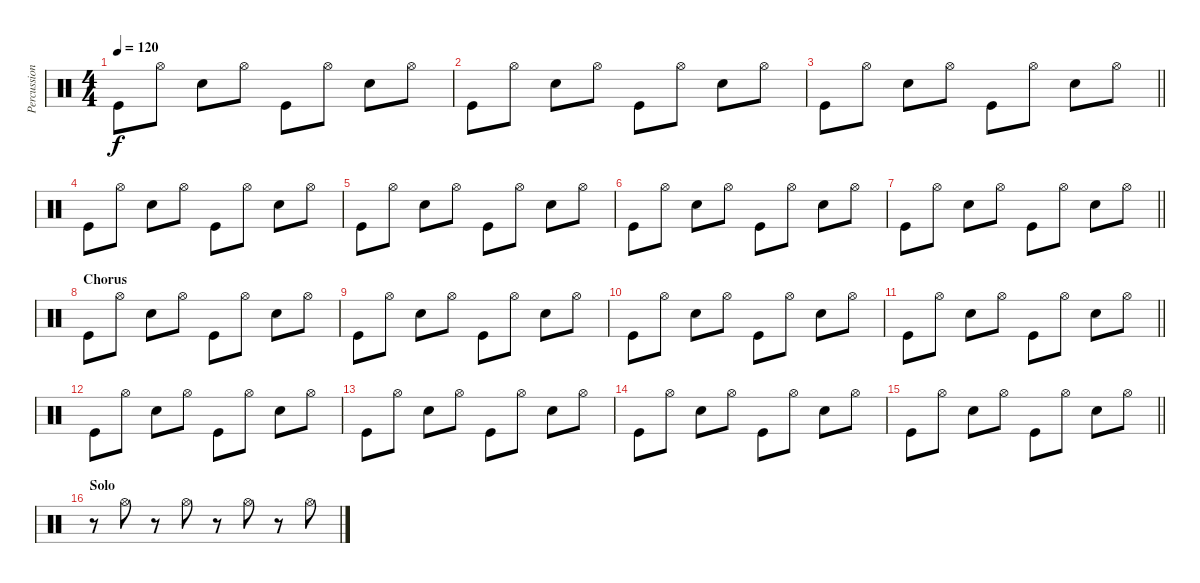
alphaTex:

\track ("Percussion" "Percussion") {instrument percussion}
\staff {score}
\articulation defaults
\ts (4 4)
\tempo 120
\clef neutral
\ks c "Kick (hit)".8{dy f} "Hi-Hat (open)".8 "Snare (hit) 2".8 "Hi-Hat (open)".8 "Kick (hit)".8 "Hi-Hat (open)".8 "Snare (hit) 2".8 "Hi-Hat (open)".8
|
"Kick (hit)".8 "Hi-Hat (open)".8 "Snare (hit) 2".8 "Hi-Hat (open)".8 "Kick (hit)".8 "Hi-Hat (open)".8 "Snare (hit) 2".8 "Hi-Hat (open)".8 |
\barLineRight lightlight "Kick (hit)".8 "Hi-Hat (open)".8 "Snare (hit) 2".8 "Hi-Hat (open)".8 "Kick (hit)".8 "Hi-Hat (open)".8 "Snare (hit) 2".8 "Hi-Hat (open)".8
|
"Kick (hit)".8 "Hi-Hat (open)".8 "Snare (hit) 2".8 "Hi-Hat (open)".8 "Kick (hit)".8 "Hi-Hat (open)".8 "Snare (hit) 2".8 "Hi-Hat (open)".8 |
"Kick (hit)".8 "Hi-Hat (open)".8 "Snare (hit) 2".8 "Hi-Hat (open)".8 "Kick (hit)".8 "Hi-Hat (open)".8 "Snare (hit) 2".8 "Hi-Hat (open)".8 |
"Kick (hit)".8 "Hi-Hat (open)".8 "Snare (hit) 2".8 "Hi-Hat (open)".8 "Kick (hit)".8 "Hi-Hat (open)".8 "Snare (hit) 2".8 "Hi-Hat (open)".8 |
\barLineRight lightlight "Kick (hit)".8 "Hi-Hat (open)".8 "Snare (hit) 2".8 "Hi-Hat (open)".8 "Kick (hit)".8 "Hi-Hat (open)".8 "Snare (hit) 2".8 "Hi-Hat (open)".8
|
\section ("" "Chorus")
"Kick (hit)".8 "Hi-Hat (open)".8 "Snare (hit) 2".8 "Hi-Hat (open)".8 "Kick (hit)".8 "Hi-Hat (open)".8 "Snare (hit) 2".8 "Hi-Hat (open)".8 |
"Kick (hit)".8 "Hi-Hat (open)".8 "Snare (hit) 2".8 "Hi-Hat (open)".8 "Kick (hit)".8 "Hi-Hat (open)".8 "Snare (hit) 2".8 "Hi-Hat (open)".8 |
"Kick (hit)".8 "Hi-Hat (open)".8 "Snare (hit) 2".8 "Hi-Hat (open)".8 "Kick (hit)".8 "Hi-Hat (open)".8 "Snare (hit) 2".8 "Hi-Hat (open)".8 |
\barLineRight lightlight "Kick (hit)".8 "Hi-Hat (open)".8 "Snare (hit) 2".8 "Hi-Hat (open)".8 "Kick (hit)".8 "Hi-Hat (open)".8 "Snare (hit) 2".8 "Hi-Hat (open)".8
|
"Kick (hit)".8 "Hi-Hat (open)".8 "Snare (hit) 2".8 "Hi-Hat (open)".8 "Kick (hit)".8 "Hi-Hat (open)".8 "Snare (hit) 2".8 "Hi-Hat (open)".8 |
"Kick (hit)".8 "Hi-Hat (open)".8 "Snare (hit) 2".8 "Hi-Hat (open)".8 "Kick (hit)".8 "Hi-Hat (open)".8 "Snare (hit) 2".8 "Hi-Hat (open)".8 |
"Kick (hit)".8 "Hi-Hat (open)".8 "Snare (hit) 2".8 "Hi-Hat (open)".8 "Kick (hit)".8 "Hi-Hat (open)".8 "Snare (hit) 2".8 "Hi-Hat (open)".8 |
\barLineRight lightlight "Kick (hit)".8 "Hi-Hat (open)".8 "Snare (hit) 2".8 "Hi-Hat (open)".8 "Kick (hit)".8 "Hi-Hat (open)".8 "Snare (hit) 2".8 "Hi-Hat (open)".8
|
\section ("" "Solo")
r.8 "Hi-Hat (open)".8 r.8 "Hi-Hat (open)".8 r.8 "Hi-Hat (open)".8 r.8 "Hi-Hat (open)".8
